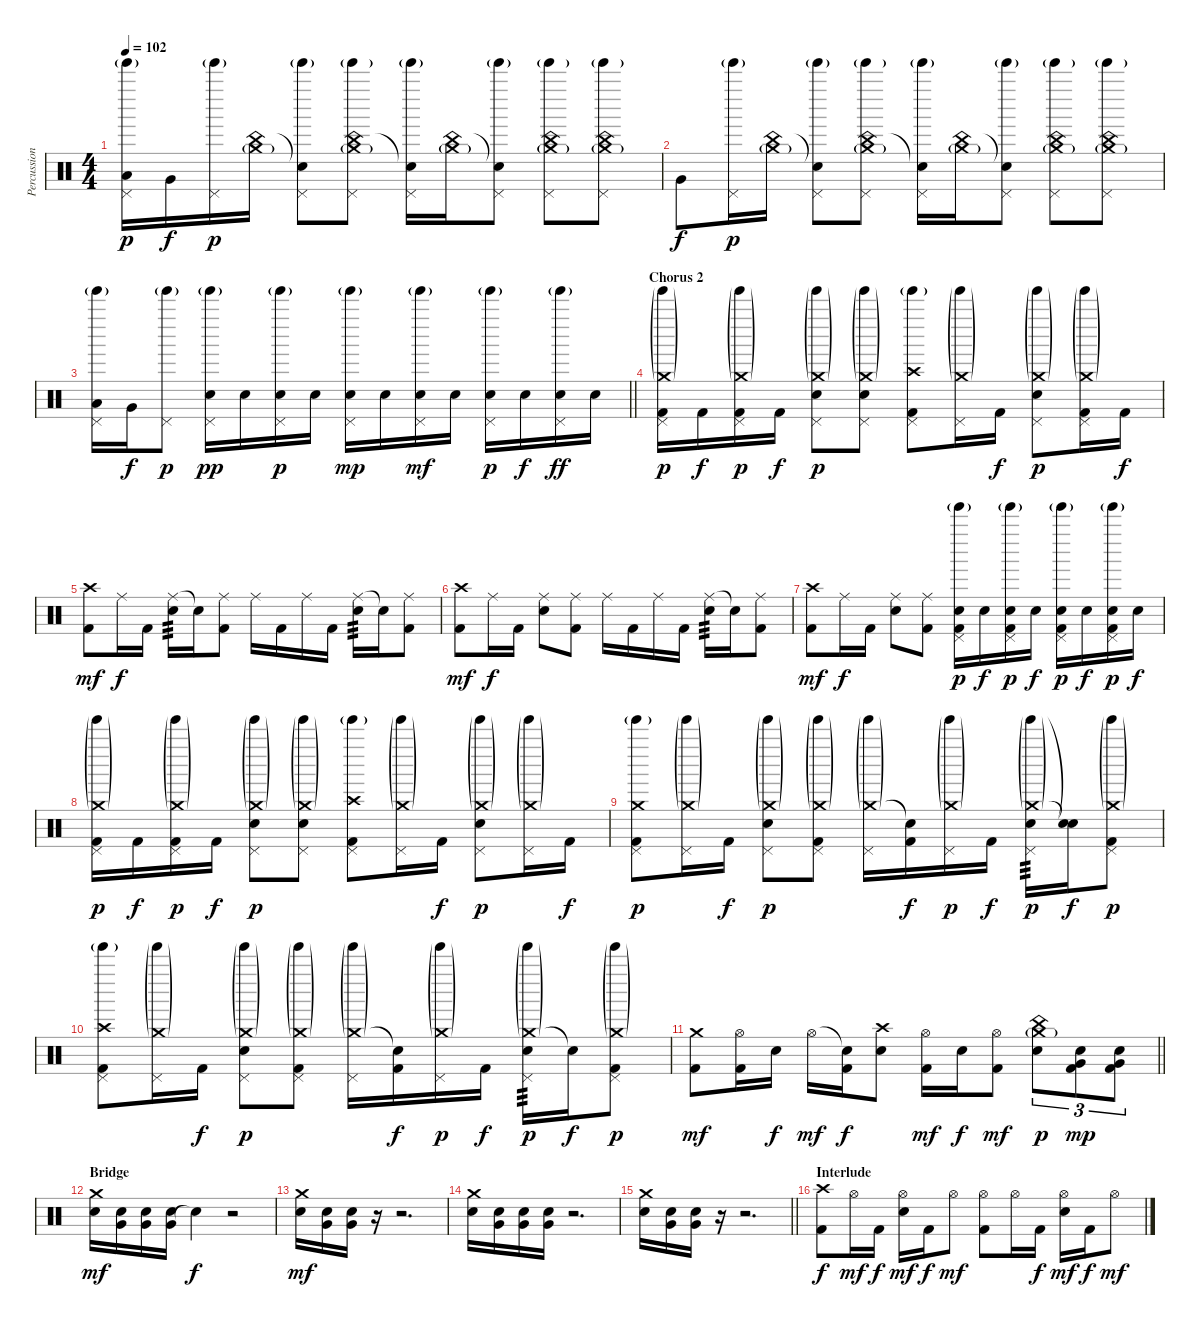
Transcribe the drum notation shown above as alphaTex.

\track ("Percussions" "Percussion") {instrument percussion}
\staff {score}
\articulation defaults
\ts (4 4)
\tempo 102
\clef neutral
\ks c
("Tinkle Bell (hit)"{g} "Pedal Hi-Hat (hit)" "Low Floor Tom (hit)").16{dy p} "Very Low Tom (hit)".16{dy f} ("Tinkle Bell (hit)"{g} "Pedal Hi-Hat (hit)").16{dy p} ("China (hit)" "Crash medium (hit)"{g}).16 ("Snare (hit)"{t} "Tinkle Bell (hit)"{g} "Pedal Hi-Hat (hit)").8 ("China (hit)" "Crash medium (hit)"{g} "Tinkle Bell (hit)"{g} "Pedal Hi-Hat (hit)").8 ("Snare (hit)"{t} "Tinkle Bell (hit)"{g} "Pedal Hi-Hat (hit)").16 ("China (hit)" "Crash medium (hit)"{g}).16 ("Snare (hit)"{t} "Tinkle Bell (hit)"{g} "Pedal Hi-Hat (hit)").8 ("China (hit)" "Crash medium (hit)"{g} "Tinkle Bell (hit)"{g} "Pedal Hi-Hat (hit)").8 ("China (hit)" "Crash medium (hit)"{g} "Tinkle Bell (hit)"{g} "Pedal Hi-Hat (hit)").8 |
"Very Low Tom (hit)".8{dy f} ("Tinkle Bell (hit)"{g} "Pedal Hi-Hat (hit)").16{dy p} ("China (hit)" "Crash medium (hit)"{g}).16 ("Snare (hit)"{t} "Tinkle Bell (hit)"{g} "Pedal Hi-Hat (hit)").8 ("China (hit)" "Crash medium (hit)"{g} "Tinkle Bell (hit)"{g} "Pedal Hi-Hat (hit)").8 ("Snare (hit)"{t} "Tinkle Bell (hit)"{g} "Pedal Hi-Hat (hit)").16 ("China (hit)" "Crash medium (hit)"{g}).16 ("Snare (hit)"{t} "Tinkle Bell (hit)"{g} "Pedal Hi-Hat (hit)").8 ("China (hit)" "Crash medium (hit)"{g} "Tinkle Bell (hit)"{g} "Pedal Hi-Hat (hit)").8 ("China (hit)" "Crash medium (hit)"{g} "Tinkle Bell (hit)"{g} "Pedal Hi-Hat (hit)").8 |
\barLineRight lightlight
("Tinkle Bell (hit)"{g} "Pedal Hi-Hat (hit)" "Low Floor Tom (hit)").16 "Very Low Tom (hit)".16{dy f} ("Tinkle Bell (hit)"{g} "Pedal Hi-Hat (hit)").8{dy p} ("Tinkle Bell (hit)"{g} "Pedal Hi-Hat (hit)" "Snare (hit) 2").16{dy pp} "Snare (hit) 2".16 ("Tinkle Bell (hit)"{g} "Pedal Hi-Hat (hit)" "Snare (hit) 2").16{dy p} "Snare (hit) 2".16 ("Tinkle Bell (hit)"{g} "Pedal Hi-Hat (hit)" "Snare (hit) 2").16{dy mp} "Snare (hit) 2".16 ("Tinkle Bell (hit)"{g} "Pedal Hi-Hat (hit)" "Snare (hit) 2").16{dy mf} "Snare (hit) 2".16 ("Tinkle Bell (hit)"{g} "Pedal Hi-Hat (hit)" "Snare (hit) 2").16{dy p} "Snare (hit) 2".16{dy f} ("Tinkle Bell (hit)"{g} "Pedal Hi-Hat (hit)" "Snare (hit) 2").16{dy ff} "Snare (hit) 2".16 |
\section ("" "Chorus 2")
("Crash medium (hit)"{g} "Tinkle Bell (hit)"{g} "Pedal Hi-Hat (hit)" "Kick (hit) 2").16{dy p} "Kick (hit) 2".16{dy f} ("Crash medium (hit)"{g} "Tinkle Bell (hit)"{g} "Pedal Hi-Hat (hit)" "Kick (hit) 2").16{dy p} "Kick (hit) 2".16{dy f} ("Crash medium (hit)"{g} "Tinkle Bell (hit)"{g} "Pedal Hi-Hat (hit)" "Electric Snare (hit)").8{dy p} ("Crash medium (hit)"{g} "Tinkle Bell (hit)"{g} "Pedal Hi-Hat (hit)" "Electric Snare (hit)").8 ("Crash high (hit)" "Tinkle Bell (hit)"{g} "Pedal Hi-Hat (hit)" "Kick (hit) 2").8 ("Crash medium (hit)"{g} "Tinkle Bell (hit)"{g} "Pedal Hi-Hat (hit)").16 "Kick (hit) 2".16{dy f} ("Crash medium (hit)"{g} "Tinkle Bell (hit)"{g} "Pedal Hi-Hat (hit)" "Electric Snare (hit)").8{dy p} ("Crash medium (hit)"{g} "Tinkle Bell (hit)"{g} "Pedal Hi-Hat (hit)" "Kick (hit) 2").16 "Kick (hit) 2".16{dy f} |
("Crash high (hit)" "Kick (hit) 2").8{dy mf} "Ride (middle)".16{dy f} "Kick (hit) 2".16 ("Ride (middle)" "Electric Snare (hit)").16{tp 3} "Snare (hit)"{t}.16 ("Ride (middle)" "Kick (hit) 2").8 "Ride (middle)".16 "Kick (hit) 2".16 "Ride (middle)".16 "Kick (hit) 2".16 ("Ride (middle)" "Electric Snare (hit)").16{tp 3} "Snare (hit)"{t}.16 ("Ride (middle)" "Kick (hit) 2").8 |
("Crash high (hit)" "Kick (hit) 2").8{dy mf} "Ride (middle)".16{dy f} "Kick (hit) 2".16 ("Ride (middle)" "Electric Snare (hit)").8 ("Ride (middle)" "Kick (hit) 2").8 "Ride (middle)".16 "Kick (hit) 2".16 "Ride (middle)".16 "Kick (hit) 2".16 ("Ride (middle)" "Electric Snare (hit)").16{tp 3} "Snare (hit)"{t}.16 ("Ride (middle)" "Kick (hit) 2").8 |
("Crash high (hit)" "Kick (hit) 2").8{dy mf} "Ride (middle)".16{dy f} "Kick (hit) 2".16 ("Ride (middle)" "Electric Snare (hit)").8 ("Ride (middle)" "Kick (hit) 2").8 ("Tinkle Bell (hit)"{g} "Pedal Hi-Hat (hit)" "Electric Snare (hit)" "Kick (hit) 2").16{dy p} "Electric Snare (hit)".16{dy f} ("Tinkle Bell (hit)"{g} "Pedal Hi-Hat (hit)" "Electric Snare (hit)" "Kick (hit) 2").16{dy p} "Electric Snare (hit)".16{dy f} ("Tinkle Bell (hit)"{g} "Pedal Hi-Hat (hit)" "Electric Snare (hit)" "Kick (hit) 2").16{dy p} "Electric Snare (hit)".16{dy f} ("Tinkle Bell (hit)"{g} "Pedal Hi-Hat (hit)" "Electric Snare (hit)" "Kick (hit) 2").16{dy p} "Electric Snare (hit)".16{dy f} |
("Crash medium (hit)"{g} "Tinkle Bell (hit)"{g} "Pedal Hi-Hat (hit)" "Kick (hit) 2").16{dy p} "Kick (hit) 2".16{dy f} ("Crash medium (hit)"{g} "Tinkle Bell (hit)"{g} "Pedal Hi-Hat (hit)" "Kick (hit) 2").16{dy p} "Kick (hit) 2".16{dy f} ("Crash medium (hit)"{g} "Tinkle Bell (hit)"{g} "Pedal Hi-Hat (hit)" "Electric Snare (hit)").8{dy p} ("Crash medium (hit)"{g} "Tinkle Bell (hit)"{g} "Pedal Hi-Hat (hit)" "Electric Snare (hit)").8 ("Crash high (hit)" "Tinkle Bell (hit)"{g} "Pedal Hi-Hat (hit)" "Kick (hit) 2").8 ("Crash medium (hit)"{g} "Tinkle Bell (hit)"{g} "Pedal Hi-Hat (hit)").16 "Kick (hit) 2".16{dy f} ("Crash medium (hit)"{g} "Tinkle Bell (hit)"{g} "Pedal Hi-Hat (hit)" "Electric Snare (hit)").8{dy p} ("Crash medium (hit)"{g} "Tinkle Bell (hit)"{g} "Pedal Hi-Hat (hit)").16 "Kick (hit) 2".16{dy f} |
("Crash medium (hit)" "Tinkle Bell (hit)"{g} "Pedal Hi-Hat (hit)" "Kick (hit) 2").8{dy p} ("Crash medium (hit)"{g} "Tinkle Bell (hit)"{g} "Pedal Hi-Hat (hit)").16 "Kick (hit) 2".16{dy f} ("Crash medium (hit)"{g} "Tinkle Bell (hit)"{g} "Pedal Hi-Hat (hit)" "Electric Snare (hit)").8{dy p} ("Crash medium (hit)"{g} "Tinkle Bell (hit)"{g} "Pedal Hi-Hat (hit)" "Kick (hit) 2").8 ("Crash medium (hit)"{g} "Tinkle Bell (hit)"{g} "Pedal Hi-Hat (hit)").16 ("Snare (hit)"{t} "Kick (hit) 2").16{dy f} ("Crash medium (hit)"{g} "Tinkle Bell (hit)"{g} "Pedal Hi-Hat (hit)").16{dy p} "Kick (hit) 2".16{dy f} ("Crash medium (hit)"{g} "Tinkle Bell (hit)"{g} "Pedal Hi-Hat (hit)" "Electric Snare (hit)").16{tp 3 dy p} ("Snare (hit)"{t} "Snare (hit)"{t}).16{dy f} ("Crash medium (hit)"{g} "Tinkle Bell (hit)"{g} "Pedal Hi-Hat (hit)" "Kick (hit) 2").8{dy p} |
("Crash high (hit)" "Tinkle Bell (hit)"{g} "Pedal Hi-Hat (hit)" "Kick (hit) 2").8 ("Crash medium (hit)"{g} "Tinkle Bell (hit)"{g} "Pedal Hi-Hat (hit)").16 "Kick (hit) 2".16{dy f} ("Crash medium (hit)"{g} "Tinkle Bell (hit)"{g} "Pedal Hi-Hat (hit)" "Electric Snare (hit)").8{dy p} ("Crash medium (hit)"{g} "Tinkle Bell (hit)"{g} "Pedal Hi-Hat (hit)" "Kick (hit) 2").8 ("Crash medium (hit)"{g} "Tinkle Bell (hit)"{g} "Pedal Hi-Hat (hit)").16 ("Snare (hit)"{t} "Kick (hit) 2").16{dy f} ("Crash medium (hit)"{g} "Tinkle Bell (hit)"{g} "Pedal Hi-Hat (hit)").16{dy p} "Kick (hit) 2".16{dy f} ("Crash medium (hit)"{g} "Tinkle Bell (hit)"{g} "Pedal Hi-Hat (hit)" "Electric Snare (hit)").16{tp 3 dy p} "Snare (hit)"{t}.16{dy f} ("Crash medium (hit)"{g} "Tinkle Bell (hit)"{g} "Pedal Hi-Hat (hit)" "Kick (hit) 2").8{dy p} |
\barLineRight lightlight
("Crash medium (hit)" "Kick (hit) 2").8{dy mf} ("Hi-Hat (open)" "Kick (hit) 2").16 "Electric Snare (hit)".16{dy f} "Hi-Hat (open)".16{dy mf} ("Snare (hit)"{t} "Kick (hit) 2").16{dy f} ("Crash high (hit)" "Electric Snare (hit)").8 ("Hi-Hat (open)" "Kick (hit) 2").16{dy mf} "Electric Snare (hit)".16{dy f} ("Hi-Hat (open)" "Kick (hit) 2").8{dy mf} ("China (hit)" "Crash medium (hit)"{g} "Electric Snare (hit)").8{tu (3 2) dy p} ("Very Low Tom (hit)" "Electric Snare (hit)" "Kick (hit) 2").8{tu (3 2) dy mp} ("Very Low Tom (hit)" "Electric Snare (hit)" "Kick (hit) 2").8{tu (3 2)} |
\section ("" "Bridge")
("Crash medium (hit)" "Electric Snare (hit)").16{dy mf} ("Very Low Tom (hit)" "Electric Snare (hit)").16 ("Very Low Tom (hit)" "Electric Snare (hit)").16 ("Very Low Tom (hit)" "Electric Snare (hit)").16 "Snare (hit)"{t}.4{dy f} r.2 |
("Crash medium (hit)" "Electric Snare (hit)").16{dy mf} ("Very Low Tom (hit)" "Electric Snare (hit)").16 ("Very Low Tom (hit)" "Electric Snare (hit)").16 r.16 r.2{d} |
("Crash medium (hit)" "Electric Snare (hit)").16 ("Very Low Tom (hit)" "Electric Snare (hit)").16 ("Very Low Tom (hit)" "Electric Snare (hit)").16 ("Very Low Tom (hit)" "Electric Snare (hit)").16 r.2{d} |
\barLineRight lightlight
("Crash medium (hit)" "Electric Snare (hit)").16 ("Very Low Tom (hit)" "Electric Snare (hit)").16 ("Very Low Tom (hit)" "Electric Snare (hit)").16 r.16 r.2{d} |
\section ("" "Interlude")
("Crash high (hit)" "Kick (hit) 2").8{dy f} "Hi-Hat (open)".16{dy mf} "Kick (hit) 2".16{dy f} ("Hi-Hat (open)" "Electric Snare (hit)").16{dy mf} "Kick (hit) 2".16{dy f} "Hi-Hat (open)".8{dy mf} ("Hi-Hat (open)" "Kick (hit) 2").8 "Hi-Hat (open)".16 "Kick (hit) 2".16{dy f} ("Hi-Hat (open)" "Electric Snare (hit)").16{dy mf} "Kick (hit) 2".16{dy f} "Hi-Hat (open)".8{dy mf}
